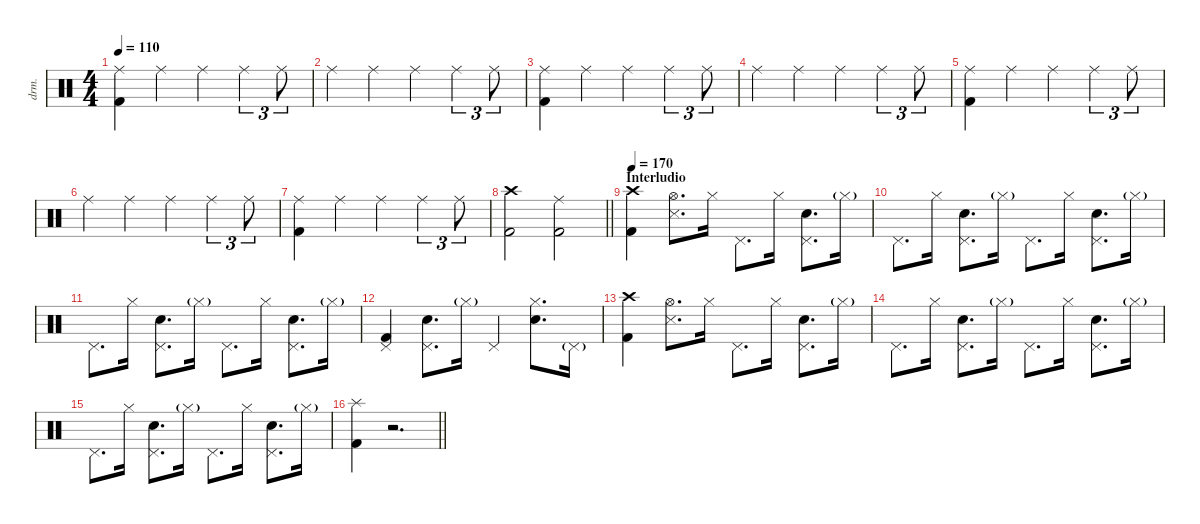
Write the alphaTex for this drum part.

\defaultSystemsLayout 4
\hideDynamics
\useSystemSignSeparator
\otherSystemsTrackNameOrientation horizontal
\extendBarLines
\track ("Drums" "drm.") {instrument percussion}
\staff {score}
\articulation defaults
\ts (4 4)
\tempo 110
\clef neutral
\ks c
("Ride (middle)" "Kick (hit) 2").4{dy f beam Down} "Ride (middle)".4{dy mp beam Down} "Ride (middle)".4{beam Down} "Ride (middle)".4{tu (3 2) beam Down} "Ride (middle)".8{tu (3 2) beam Down} |
"Ride (middle)".4{beam Down} "Ride (middle)".4{beam Down} "Ride (middle)".4{beam Down} "Ride (middle)".4{tu (3 2) beam Down} "Ride (middle)".8{tu (3 2) beam Down} |
("Ride (middle)" "Kick (hit) 2").4{dy f beam Down} "Ride (middle)".4{dy mp beam Down} "Ride (middle)".4{beam Down} "Ride (middle)".4{tu (3 2) beam Down} "Ride (middle)".8{tu (3 2) beam Down} |
"Ride (middle)".4{beam Down} "Ride (middle)".4{beam Down} "Ride (middle)".4{beam Down} "Ride (middle)".4{tu (3 2) beam Down} "Ride (middle)".8{tu (3 2) beam Down} |
("Ride (middle)" "Kick (hit) 2").4{dy f beam Down} "Ride (middle)".4{dy mp beam Down} "Ride (middle)".4{beam Down} "Ride (middle)".4{tu (3 2) beam Down} "Ride (middle)".8{tu (3 2) beam Down} |
"Ride (middle)".4{beam Down} "Ride (middle)".4{beam Down} "Ride (middle)".4{beam Down} "Ride (middle)".4{tu (3 2) beam Down} "Ride (middle)".8{tu (3 2) beam Down} |
("Ride (middle)" "Kick (hit) 2").4{dy f beam Down} "Ride (middle)".4{dy mp beam Down} "Ride (middle)".4{beam Down} "Ride (middle)".4{tu (3 2) beam Down} "Ride (middle)".8{tu (3 2) beam Down} |
\barLineRight lightlight
("Crash high (hit)" "Kick (hit) 2").2{dy f beam Down} ("Ride (middle)" "Kick (hit) 2").2{beam Down} |
\section ("" "Interludio")
\tempo 170
("Crash high (hit)" "Kick (hit) 2").4{beam Down} ("Hi-Hat (open)" "Snare (side stick) 3").8{d beam Down} "Hi-Hat (closed)".16{beam Down} "Pedal Hi-Hat (hit)".8{d beam Down} "Hi-Hat (closed)".16{beam Down} ("Pedal Hi-Hat (hit)" "Snare (hit) 2").8{d beam Down} "Hi-Hat (closed)"{g}.16{dy mf beam Down} |
"Pedal Hi-Hat (hit)".8{d dy f beam Down} "Hi-Hat (closed)".16{beam Down} ("Pedal Hi-Hat (hit)" "Snare (hit) 2").8{d beam Down} "Hi-Hat (closed)"{g}.16{dy mf beam Down} "Pedal Hi-Hat (hit)".8{d dy f beam Down} "Hi-Hat (closed)".16{beam Down} ("Pedal Hi-Hat (hit)" "Snare (hit) 2").8{d beam Down} "Hi-Hat (closed)"{g}.16{dy mf beam Down} |
"Pedal Hi-Hat (hit)".8{d dy f beam Down} "Hi-Hat (closed)".16{beam Down} ("Pedal Hi-Hat (hit)" "Snare (hit) 2").8{d beam Down} "Hi-Hat (closed)"{g}.16{dy mf beam Down} "Pedal Hi-Hat (hit)".8{d dy f beam Down} "Hi-Hat (closed)".16{beam Down} ("Pedal Hi-Hat (hit)" "Snare (hit) 2").8{d beam Down} "Hi-Hat (closed)"{g}.16{dy mf beam Down} |
("Pedal Hi-Hat (hit)" "Kick (hit) 2").4{dy f beam Up} ("Pedal Hi-Hat (hit)" "Snare (hit) 2").8{d beam Down} "Hi-Hat (closed)"{g}.16{dy mf beam Down} "Pedal Hi-Hat (hit)".4{dy f beam Up} ("Hi-Hat (closed)" "Snare (hit) 2").8{d beam Down} "Pedal Hi-Hat (hit)"{g}.16{dy mf beam Down} |
("Crash high (hit)" "Kick (hit) 2").4{dy f beam Down} ("Hi-Hat (open)" "Snare (side stick) 3").8{d beam Down} "Hi-Hat (closed)".16{beam Down} "Pedal Hi-Hat (hit)".8{d beam Down} "Hi-Hat (closed)".16{beam Down} ("Pedal Hi-Hat (hit)" "Snare (hit) 2").8{d beam Down} "Hi-Hat (closed)"{g}.16{dy mf beam Down} |
"Pedal Hi-Hat (hit)".8{d dy f beam Down} "Hi-Hat (closed)".16{beam Down} ("Pedal Hi-Hat (hit)" "Snare (hit) 2").8{d beam Down} "Hi-Hat (closed)"{g}.16{dy mf beam Down} "Pedal Hi-Hat (hit)".8{d dy f beam Down} "Hi-Hat (closed)".16{beam Down} ("Pedal Hi-Hat (hit)" "Snare (hit) 2").8{d beam Down} "Hi-Hat (closed)"{g}.16{dy mf beam Down} |
"Pedal Hi-Hat (hit)".8{d dy f beam Down} "Hi-Hat (closed)".16{beam Down} ("Pedal Hi-Hat (hit)" "Snare (hit) 2").8{d beam Down} "Hi-Hat (closed)"{g}.16{dy mf beam Down} "Pedal Hi-Hat (hit)".8{d dy f beam Down} "Hi-Hat (closed)".16{beam Down} ("Pedal Hi-Hat (hit)" "Snare (hit) 2").8{d beam Down} "Hi-Hat (closed)"{g}.16{dy mf beam Down} |
\barLineRight lightlight
("Splash (hit)" "Kick (hit) 2").4{dy f beam Down} r.2{d beam Down}
